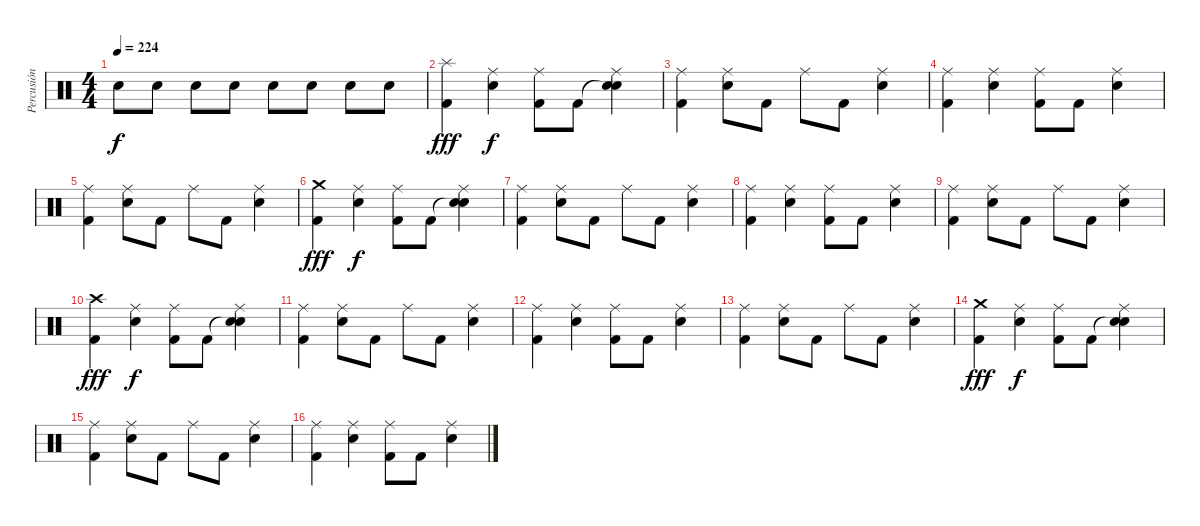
\track ("Percusión" "Percusión") {instrument percussion}
\staff {score}
\articulation defaults
\ts (4 4)
\tempo 224
\clef neutral
\ks c "Electric Snare (hit)".8{dy f} "Electric Snare (hit)".8 "Electric Snare (hit)".8 "Electric Snare (hit)".8 "Electric Snare (hit)".8 "Electric Snare (hit)".8 "Electric Snare (hit)".8 "Electric Snare (hit)".8
|
("Splash (hit)" "Kick (hit) 2").4{dy fff} ("Ride (middle)" "Electric Snare (hit)").4{dy f} ("Ride (middle)" "Kick (hit) 2").8 "Kick (hit) 2".8 ("Snare (hit)"{t} "Ride (middle)" "Electric Snare (hit)").4 |
("Ride (middle)" "Kick (hit) 2").4 ("Ride (middle)" "Electric Snare (hit)").8 "Kick (hit) 2".8 "Ride (middle)".8 "Kick (hit) 2".8 ("Ride (middle)" "Electric Snare (hit)").4 |
("Ride (middle)" "Kick (hit) 2").4 ("Ride (middle)" "Electric Snare (hit)").4 ("Ride (middle)" "Kick (hit) 2").8 "Kick (hit) 2".8 ("Ride (middle)" "Electric Snare (hit)").4 |
("Ride (middle)" "Kick (hit) 2").4 ("Ride (middle)" "Electric Snare (hit)").8 "Kick (hit) 2".8 "Ride (middle)".8 "Kick (hit) 2".8 ("Ride (middle)" "Electric Snare (hit)").4 |
("Crash medium (hit)" "Kick (hit) 2").4{dy fff} ("Ride (middle)" "Electric Snare (hit)").4{dy f} ("Ride (middle)" "Kick (hit) 2").8 "Kick (hit) 2".8 ("Snare (hit)"{t} "Ride (middle)" "Electric Snare (hit)").4 |
("Ride (middle)" "Kick (hit) 2").4 ("Ride (middle)" "Electric Snare (hit)").8 "Kick (hit) 2".8 "Ride (middle)".8 "Kick (hit) 2".8 ("Ride (middle)" "Electric Snare (hit)").4 |
("Ride (middle)" "Kick (hit) 2").4 ("Ride (middle)" "Electric Snare (hit)").4 ("Ride (middle)" "Kick (hit) 2").8 "Kick (hit) 2".8 ("Ride (middle)" "Electric Snare (hit)").4 |
("Ride (middle)" "Kick (hit) 2").4 ("Ride (middle)" "Electric Snare (hit)").8 "Kick (hit) 2".8 "Ride (middle)".8 "Kick (hit) 2".8 ("Ride (middle)" "Electric Snare (hit)").4 |
("Crash high (hit)" "Kick (hit) 2").4{dy fff} ("Ride (middle)" "Electric Snare (hit)").4{dy f} ("Ride (middle)" "Kick (hit) 2").8 "Kick (hit) 2".8 ("Snare (hit)"{t} "Ride (middle)" "Electric Snare (hit)").4 |
("Ride (middle)" "Kick (hit) 2").4 ("Ride (middle)" "Electric Snare (hit)").8 "Kick (hit) 2".8 "Ride (middle)".8 "Kick (hit) 2".8 ("Ride (middle)" "Electric Snare (hit)").4 |
("Ride (middle)" "Kick (hit) 2").4 ("Ride (middle)" "Electric Snare (hit)").4 ("Ride (middle)" "Kick (hit) 2").8 "Kick (hit) 2".8 ("Ride (middle)" "Electric Snare (hit)").4 |
("Ride (middle)" "Kick (hit) 2").4 ("Ride (middle)" "Electric Snare (hit)").8 "Kick (hit) 2".8 "Ride (middle)".8 "Kick (hit) 2".8 ("Ride (middle)" "Electric Snare (hit)").4 |
("Crash medium (hit)" "Kick (hit) 2").4{dy fff} ("Ride (middle)" "Electric Snare (hit)").4{dy f} ("Ride (middle)" "Kick (hit) 2").8 "Kick (hit) 2".8 ("Snare (hit)"{t} "Ride (middle)" "Electric Snare (hit)").4 |
("Ride (middle)" "Kick (hit) 2").4 ("Ride (middle)" "Electric Snare (hit)").8 "Kick (hit) 2".8 "Ride (middle)".8 "Kick (hit) 2".8 ("Ride (middle)" "Electric Snare (hit)").4 |
("Ride (middle)" "Kick (hit) 2").4 ("Ride (middle)" "Electric Snare (hit)").4 ("Ride (middle)" "Kick (hit) 2").8 "Kick (hit) 2".8 ("Ride (middle)" "Electric Snare (hit)").4
